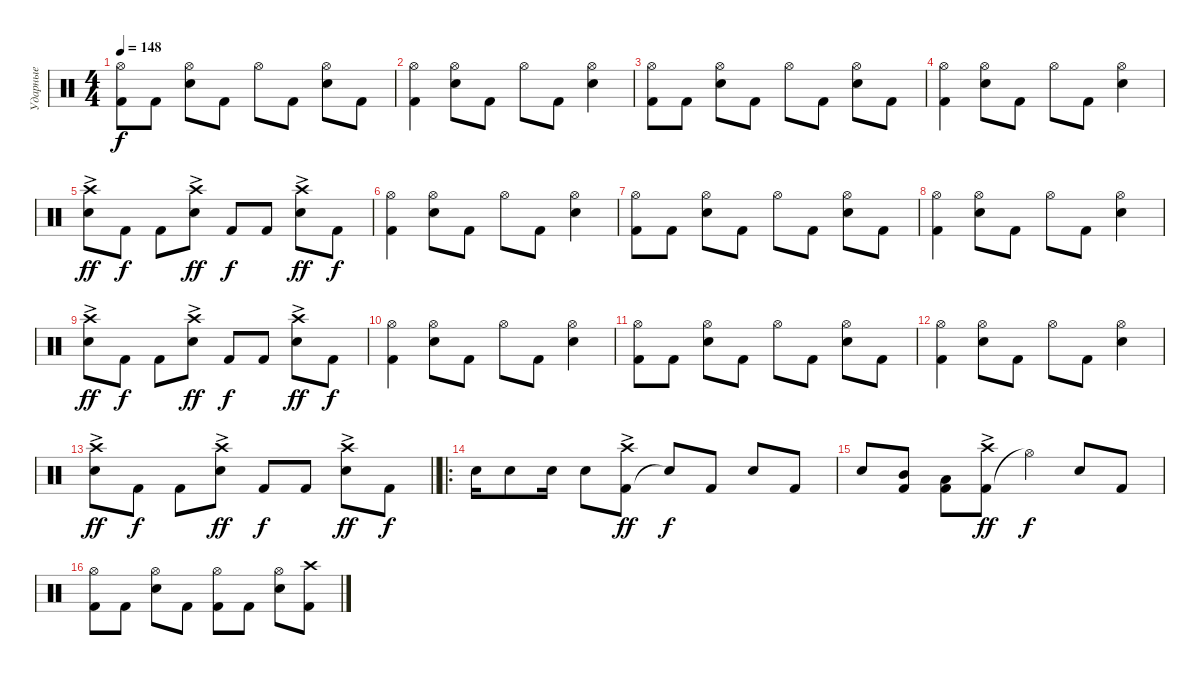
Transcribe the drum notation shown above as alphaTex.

\track ("Ударные" "Ударные") {instrument percussion}
\staff {score}
\articulation defaults
\ts (4 4)
\tempo 148
\clef neutral
\ks c
("Kick (hit) 2" "Hi-Hat (open)").8{dy f} "Kick (hit) 2".8 ("Snare (hit) 2" "Hi-Hat (open)").8 "Kick (hit) 2".8 "Hi-Hat (open)".8 "Kick (hit) 2".8 ("Snare (hit) 2" "Hi-Hat (open)").8 "Kick (hit) 2".8 |
("Kick (hit) 2" "Hi-Hat (open)").4 ("Snare (hit) 2" "Hi-Hat (open)").8 "Kick (hit) 2".8 "Hi-Hat (open)".8 "Kick (hit) 2".8 ("Snare (hit) 2" "Hi-Hat (open)").4 |
("Kick (hit) 2" "Hi-Hat (open)").8 "Kick (hit) 2".8 ("Snare (hit) 2" "Hi-Hat (open)").8 "Kick (hit) 2".8 "Hi-Hat (open)".8 "Kick (hit) 2".8 ("Snare (hit) 2" "Hi-Hat (open)").8 "Kick (hit) 2".8 |
("Kick (hit) 2" "Hi-Hat (open)").4 ("Snare (hit) 2" "Hi-Hat (open)").8 "Kick (hit) 2".8 "Hi-Hat (open)".8 "Kick (hit) 2".8 ("Snare (hit) 2" "Hi-Hat (open)").4 |
("Snare (hit) 2" "Crash high (hit)"{ac}).8{dy ff} "Kick (hit) 2".8{dy f} "Kick (hit) 2".8 ("Snare (hit) 2" "Crash high (hit)"{ac}).8{dy ff} "Kick (hit) 2".8{dy f} "Kick (hit) 2".8 ("Snare (hit) 2" "Crash high (hit)"{ac}).8{dy ff} "Kick (hit) 2".8{dy f} |
("Kick (hit) 2" "Hi-Hat (open)").4 ("Snare (hit) 2" "Hi-Hat (open)").8 "Kick (hit) 2".8 "Hi-Hat (open)".8 "Kick (hit) 2".8 ("Snare (hit) 2" "Hi-Hat (open)").4 |
("Kick (hit) 2" "Hi-Hat (open)").8 "Kick (hit) 2".8 ("Snare (hit) 2" "Hi-Hat (open)").8 "Kick (hit) 2".8 "Hi-Hat (open)".8 "Kick (hit) 2".8 ("Snare (hit) 2" "Hi-Hat (open)").8 "Kick (hit) 2".8 |
("Kick (hit) 2" "Hi-Hat (open)").4 ("Snare (hit) 2" "Hi-Hat (open)").8 "Kick (hit) 2".8 "Hi-Hat (open)".8 "Kick (hit) 2".8 ("Snare (hit) 2" "Hi-Hat (open)").4 |
("Snare (hit) 2" "Crash high (hit)"{ac}).8{dy ff} "Kick (hit) 2".8{dy f} "Kick (hit) 2".8 ("Snare (hit) 2" "Crash high (hit)"{ac}).8{dy ff} "Kick (hit) 2".8{dy f} "Kick (hit) 2".8 ("Snare (hit) 2" "Crash high (hit)"{ac}).8{dy ff} "Kick (hit) 2".8{dy f} |
("Kick (hit) 2" "Hi-Hat (open)").4 ("Snare (hit) 2" "Hi-Hat (open)").8 "Kick (hit) 2".8 "Hi-Hat (open)".8 "Kick (hit) 2".8 ("Snare (hit) 2" "Hi-Hat (open)").4 |
("Kick (hit) 2" "Hi-Hat (open)").8 "Kick (hit) 2".8 ("Snare (hit) 2" "Hi-Hat (open)").8 "Kick (hit) 2".8 "Hi-Hat (open)".8 "Kick (hit) 2".8 ("Snare (hit) 2" "Hi-Hat (open)").8 "Kick (hit) 2".8 |
("Kick (hit) 2" "Hi-Hat (open)").4 ("Snare (hit) 2" "Hi-Hat (open)").8 "Kick (hit) 2".8 "Hi-Hat (open)".8 "Kick (hit) 2".8 ("Snare (hit) 2" "Hi-Hat (open)").4 |
\barLineRight lightlight
("Snare (hit) 2" "Crash high (hit)"{ac}).8{dy ff} "Kick (hit) 2".8{dy f} "Kick (hit) 2".8 ("Snare (hit) 2" "Crash high (hit)"{ac}).8{dy ff} "Kick (hit) 2".8{dy f} "Kick (hit) 2".8 ("Snare (hit) 2" "Crash high (hit)"{ac}).8{dy ff} "Kick (hit) 2".8{dy f} |
\ro "Snare (hit) 2".16 "Electric Snare (hit)".8 "Snare (hit) 2".16 "Electric Snare (hit)".8
("Kick (hit) 2" "Crash high (hit)"{ac}).8{dy ff} "Snare (hit)"{t}.8{dy f} "Kick (hit) 2".8 "Snare (hit) 2".8 "Kick (hit) 2".8 |
"Snare (hit) 2".8 ("Kick (hit) 2" "Mid Tom (hit)").8 ("Kick (hit) 2" "Low Tom (hit)").8 ("Kick (hit) 2" "Crash high (hit)"{ac}).8{dy ff} "Hi-Hat (open)"{t}.4{dy f} "Snare (hit) 2".8 "Kick (hit) 2".8 |
("Kick (hit) 2" "Hi-Hat (open)").8 "Kick (hit) 2".8 ("Snare (hit) 2" "Hi-Hat (open)").8 "Kick (hit) 2".8 ("Kick (hit) 2" "Hi-Hat (open)").8 "Kick (hit) 2".8 ("Snare (hit) 2" "Hi-Hat (open)").8 ("Kick (hit) 2" "Crash high (hit)").8
